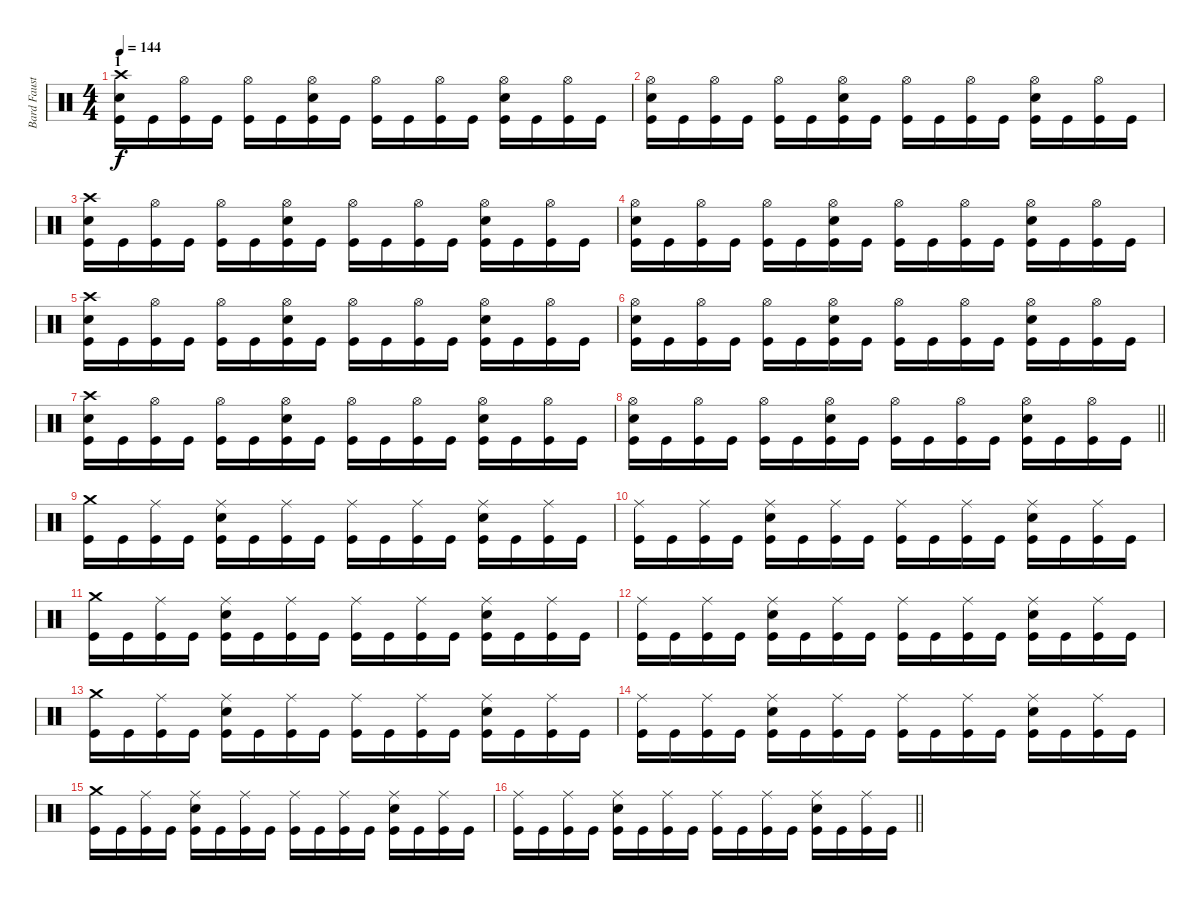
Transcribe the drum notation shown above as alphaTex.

\track ("Bard Faust" "Bard Faust") {instrument percussion}
\staff {score}
\articulation defaults
\ts (4 4)
\section ("" "1")
\tempo 144
\clef neutral
\ks c
("Crash high (hit)" "Snare (hit) 2" "Kick (hit)").16{dy f} "Kick (hit)".16 ("Hi-Hat (open)" "Kick (hit)").16 "Kick (hit)".16 ("Hi-Hat (open)" "Kick (hit)").16 "Kick (hit)".16 ("Hi-Hat (open)" "Snare (hit) 2" "Kick (hit)").16 "Kick (hit)".16 ("Hi-Hat (open)" "Kick (hit)").16 "Kick (hit)".16 ("Hi-Hat (open)" "Kick (hit)").16 "Kick (hit)".16 ("Hi-Hat (open)" "Snare (hit) 2" "Kick (hit)").16 "Kick (hit)".16 ("Hi-Hat (open)" "Kick (hit)").16 "Kick (hit)".16 |
("Hi-Hat (open)" "Snare (hit) 2" "Kick (hit)").16 "Kick (hit)".16 ("Hi-Hat (open)" "Kick (hit)").16 "Kick (hit)".16 ("Hi-Hat (open)" "Kick (hit)").16 "Kick (hit)".16 ("Hi-Hat (open)" "Snare (hit) 2" "Kick (hit)").16 "Kick (hit)".16 ("Hi-Hat (open)" "Kick (hit)").16 "Kick (hit)".16 ("Hi-Hat (open)" "Kick (hit)").16 "Kick (hit)".16 ("Hi-Hat (open)" "Snare (hit) 2" "Kick (hit)").16 "Kick (hit)".16 ("Hi-Hat (open)" "Kick (hit)").16 "Kick (hit)".16 |
("Crash high (hit)" "Snare (hit) 2" "Kick (hit)").16 "Kick (hit)".16 ("Hi-Hat (open)" "Kick (hit)").16 "Kick (hit)".16 ("Hi-Hat (open)" "Kick (hit)").16 "Kick (hit)".16 ("Hi-Hat (open)" "Snare (hit) 2" "Kick (hit)").16 "Kick (hit)".16 ("Hi-Hat (open)" "Kick (hit)").16 "Kick (hit)".16 ("Hi-Hat (open)" "Kick (hit)").16 "Kick (hit)".16 ("Hi-Hat (open)" "Snare (hit) 2" "Kick (hit)").16 "Kick (hit)".16 ("Hi-Hat (open)" "Kick (hit)").16 "Kick (hit)".16 |
("Hi-Hat (open)" "Snare (hit) 2" "Kick (hit)").16 "Kick (hit)".16 ("Hi-Hat (open)" "Kick (hit)").16 "Kick (hit)".16 ("Hi-Hat (open)" "Kick (hit)").16 "Kick (hit)".16 ("Hi-Hat (open)" "Snare (hit) 2" "Kick (hit)").16 "Kick (hit)".16 ("Hi-Hat (open)" "Kick (hit)").16 "Kick (hit)".16 ("Hi-Hat (open)" "Kick (hit)").16 "Kick (hit)".16 ("Hi-Hat (open)" "Snare (hit) 2" "Kick (hit)").16 "Kick (hit)".16 ("Hi-Hat (open)" "Kick (hit)").16 "Kick (hit)".16 |
("Crash high (hit)" "Snare (hit) 2" "Kick (hit)").16 "Kick (hit)".16 ("Hi-Hat (open)" "Kick (hit)").16 "Kick (hit)".16 ("Hi-Hat (open)" "Kick (hit)").16 "Kick (hit)".16 ("Hi-Hat (open)" "Snare (hit) 2" "Kick (hit)").16 "Kick (hit)".16 ("Hi-Hat (open)" "Kick (hit)").16 "Kick (hit)".16 ("Hi-Hat (open)" "Kick (hit)").16 "Kick (hit)".16 ("Hi-Hat (open)" "Snare (hit) 2" "Kick (hit)").16 "Kick (hit)".16 ("Hi-Hat (open)" "Kick (hit)").16 "Kick (hit)".16 |
("Hi-Hat (open)" "Snare (hit) 2" "Kick (hit)").16 "Kick (hit)".16 ("Hi-Hat (open)" "Kick (hit)").16 "Kick (hit)".16 ("Hi-Hat (open)" "Kick (hit)").16 "Kick (hit)".16 ("Hi-Hat (open)" "Snare (hit) 2" "Kick (hit)").16 "Kick (hit)".16 ("Hi-Hat (open)" "Kick (hit)").16 "Kick (hit)".16 ("Hi-Hat (open)" "Kick (hit)").16 "Kick (hit)".16 ("Hi-Hat (open)" "Snare (hit) 2" "Kick (hit)").16 "Kick (hit)".16 ("Hi-Hat (open)" "Kick (hit)").16 "Kick (hit)".16 |
("Crash high (hit)" "Snare (hit) 2" "Kick (hit)").16 "Kick (hit)".16 ("Hi-Hat (open)" "Kick (hit)").16 "Kick (hit)".16 ("Hi-Hat (open)" "Kick (hit)").16 "Kick (hit)".16 ("Hi-Hat (open)" "Snare (hit) 2" "Kick (hit)").16 "Kick (hit)".16 ("Hi-Hat (open)" "Kick (hit)").16 "Kick (hit)".16 ("Hi-Hat (open)" "Kick (hit)").16 "Kick (hit)".16 ("Hi-Hat (open)" "Snare (hit) 2" "Kick (hit)").16 "Kick (hit)".16 ("Hi-Hat (open)" "Kick (hit)").16 "Kick (hit)".16 |
\barLineRight lightlight
("Hi-Hat (open)" "Snare (hit) 2" "Kick (hit)").16 "Kick (hit)".16 ("Hi-Hat (open)" "Kick (hit)").16 "Kick (hit)".16 ("Hi-Hat (open)" "Kick (hit)").16 "Kick (hit)".16 ("Hi-Hat (open)" "Snare (hit) 2" "Kick (hit)").16 "Kick (hit)".16 ("Hi-Hat (open)" "Kick (hit)").16 "Kick (hit)".16 ("Hi-Hat (open)" "Kick (hit)").16 "Kick (hit)".16 ("Hi-Hat (open)" "Snare (hit) 2" "Kick (hit)").16 "Kick (hit)".16 ("Hi-Hat (open)" "Kick (hit)").16 "Kick (hit)".16 |
\section ("" "")
("Crash medium (hit)" "Kick (hit)").16 "Kick (hit)".16 ("Ride (middle)" "Kick (hit)").16 "Kick (hit)".16 ("Ride (middle)" "Snare (hit) 2" "Kick (hit)").16 "Kick (hit)".16 ("Ride (middle)" "Kick (hit)").16 "Kick (hit)".16 ("Ride (middle)" "Kick (hit)").16 "Kick (hit)".16 ("Ride (middle)" "Kick (hit)").16 "Kick (hit)".16 ("Ride (middle)" "Snare (hit) 2" "Kick (hit)").16 "Kick (hit)".16 ("Ride (middle)" "Kick (hit)").16 "Kick (hit)".16 |
("Ride (middle)" "Kick (hit)").16 "Kick (hit)".16 ("Ride (middle)" "Kick (hit)").16 "Kick (hit)".16 ("Ride (middle)" "Snare (hit) 2" "Kick (hit)").16 "Kick (hit)".16 ("Ride (middle)" "Kick (hit)").16 "Kick (hit)".16 ("Ride (middle)" "Kick (hit)").16 "Kick (hit)".16 ("Ride (middle)" "Kick (hit)").16 "Kick (hit)".16 ("Ride (middle)" "Snare (hit) 2" "Kick (hit)").16 "Kick (hit)".16 ("Ride (middle)" "Kick (hit)").16 "Kick (hit)".16 |
("Crash medium (hit)" "Kick (hit)").16 "Kick (hit)".16 ("Ride (middle)" "Kick (hit)").16 "Kick (hit)".16 ("Ride (middle)" "Snare (hit) 2" "Kick (hit)").16 "Kick (hit)".16 ("Ride (middle)" "Kick (hit)").16 "Kick (hit)".16 ("Ride (middle)" "Kick (hit)").16 "Kick (hit)".16 ("Ride (middle)" "Kick (hit)").16 "Kick (hit)".16 ("Ride (middle)" "Snare (hit) 2" "Kick (hit)").16 "Kick (hit)".16 ("Ride (middle)" "Kick (hit)").16 "Kick (hit)".16 |
("Ride (middle)" "Kick (hit)").16 "Kick (hit)".16 ("Ride (middle)" "Kick (hit)").16 "Kick (hit)".16 ("Ride (middle)" "Snare (hit) 2" "Kick (hit)").16 "Kick (hit)".16 ("Ride (middle)" "Kick (hit)").16 "Kick (hit)".16 ("Ride (middle)" "Kick (hit)").16 "Kick (hit)".16 ("Ride (middle)" "Kick (hit)").16 "Kick (hit)".16 ("Ride (middle)" "Snare (hit) 2" "Kick (hit)").16 "Kick (hit)".16 ("Ride (middle)" "Kick (hit)").16 "Kick (hit)".16 |
("Crash medium (hit)" "Kick (hit)").16 "Kick (hit)".16 ("Ride (middle)" "Kick (hit)").16 "Kick (hit)".16 ("Ride (middle)" "Snare (hit) 2" "Kick (hit)").16 "Kick (hit)".16 ("Ride (middle)" "Kick (hit)").16 "Kick (hit)".16 ("Ride (middle)" "Kick (hit)").16 "Kick (hit)".16 ("Ride (middle)" "Kick (hit)").16 "Kick (hit)".16 ("Ride (middle)" "Snare (hit) 2" "Kick (hit)").16 "Kick (hit)".16 ("Ride (middle)" "Kick (hit)").16 "Kick (hit)".16 |
("Ride (middle)" "Kick (hit)").16 "Kick (hit)".16 ("Ride (middle)" "Kick (hit)").16 "Kick (hit)".16 ("Ride (middle)" "Snare (hit) 2" "Kick (hit)").16 "Kick (hit)".16 ("Ride (middle)" "Kick (hit)").16 "Kick (hit)".16 ("Ride (middle)" "Kick (hit)").16 "Kick (hit)".16 ("Ride (middle)" "Kick (hit)").16 "Kick (hit)".16 ("Ride (middle)" "Snare (hit) 2" "Kick (hit)").16 "Kick (hit)".16 ("Ride (middle)" "Kick (hit)").16 "Kick (hit)".16 |
("Crash medium (hit)" "Kick (hit)").16 "Kick (hit)".16 ("Ride (middle)" "Kick (hit)").16 "Kick (hit)".16 ("Ride (middle)" "Snare (hit) 2" "Kick (hit)").16 "Kick (hit)".16 ("Ride (middle)" "Kick (hit)").16 "Kick (hit)".16 ("Ride (middle)" "Kick (hit)").16 "Kick (hit)".16 ("Ride (middle)" "Kick (hit)").16 "Kick (hit)".16 ("Ride (middle)" "Snare (hit) 2" "Kick (hit)").16 "Kick (hit)".16 ("Ride (middle)" "Kick (hit)").16 "Kick (hit)".16 |
\barLineRight lightlight
("Ride (middle)" "Kick (hit)").16 "Kick (hit)".16 ("Ride (middle)" "Kick (hit)").16 "Kick (hit)".16 ("Ride (middle)" "Snare (hit) 2" "Kick (hit)").16 "Kick (hit)".16 ("Ride (middle)" "Kick (hit)").16 "Kick (hit)".16 ("Ride (middle)" "Kick (hit)").16 "Kick (hit)".16 ("Ride (middle)" "Kick (hit)").16 "Kick (hit)".16 ("Ride (middle)" "Snare (hit) 2" "Kick (hit)").16 "Kick (hit)".16 ("Ride (middle)" "Kick (hit)").16 "Kick (hit)".16
